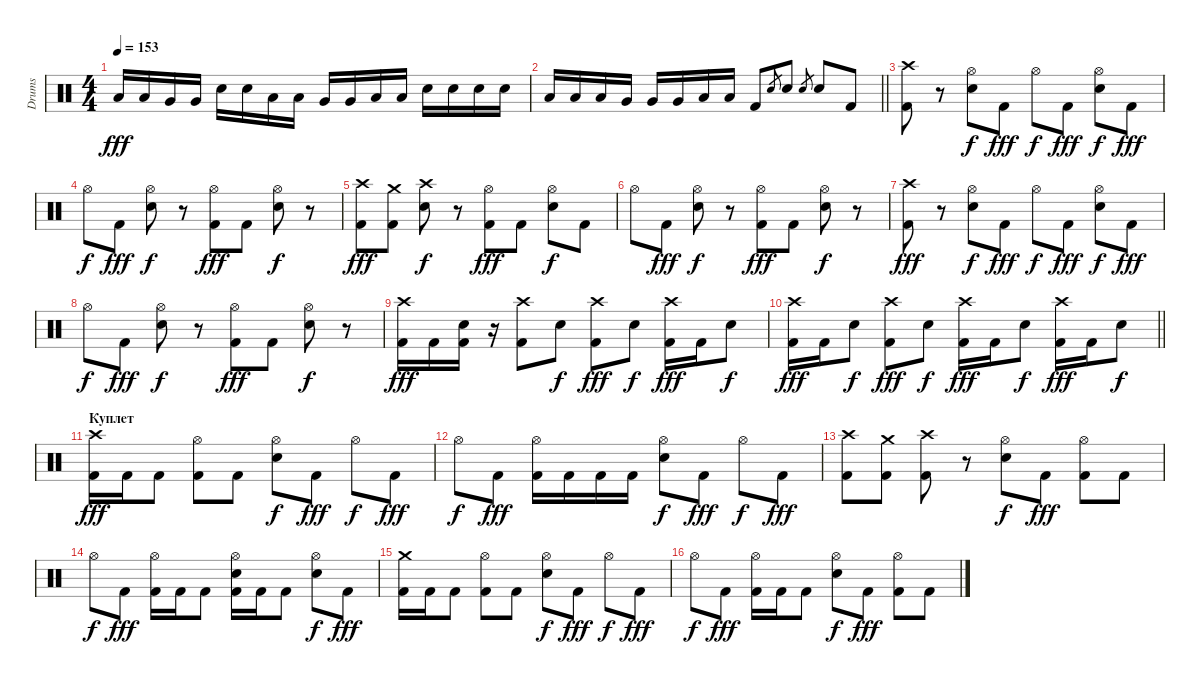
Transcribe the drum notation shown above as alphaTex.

\track ("Drums" "Drums") {instrument percussion}
\staff {score}
\articulation defaults
\ts (4 4)
\tempo 153
\clef neutral
\ks c "Low Tom (hit)".16{dy fff} "Low Tom (hit)".16 "Very Low Tom (hit)".16 "Very Low Tom (hit)".16 "Electric Snare (hit)".16 "Electric Snare (hit)".16 "Low Tom (hit)".16 "Low Tom (hit)".16 "Very Low Tom (hit)".16 "Very Low Tom (hit)".16 "Low Floor Tom (hit)".16 "Low Floor Tom (hit)".16 "Electric Snare (hit)".16 "Electric Snare (hit)".16 "Electric Snare (hit)".16 "Electric Snare (hit)".16
|
\barLineRight lightlight "Low Tom (hit)".16 "Low Tom (hit)".16 "Low Tom (hit)".16 "Very Low Tom (hit)".16 "Very Low Tom (hit)".16 "Very Low Tom (hit)".16 "Low Floor Tom (hit)".16 "Low Floor Tom (hit)".16 "Kick (hit) 2".8 "Electric Snare (hit)".8{gr} "Electric Snare (hit)".8 "Electric Snare (hit)".8{gr} "Electric Snare (hit)".8 "Kick (hit) 2".8
|
\section ("" "")
("Crash high (hit)" "Kick (hit) 2").8 r.8 ("Hi-Hat (open)" "Electric Snare (hit)").8{dy f} "Kick (hit) 2".8{dy fff} "Hi-Hat (open)".8{dy f} "Kick (hit) 2".8{dy fff} ("Hi-Hat (open)" "Electric Snare (hit)").8{dy f} "Kick (hit) 2".8{dy fff} |
"Hi-Hat (open)".8{dy f} "Kick (hit) 2".8{dy fff} ("Hi-Hat (open)" "Electric Snare (hit)").8{dy f} r.8 ("Hi-Hat (open)" "Kick (hit) 2").8{dy fff} "Kick (hit) 2".8 ("Hi-Hat (open)" "Electric Snare (hit)").8{dy f} r.8 |
("Crash high (hit)" "Kick (hit) 2").8{dy fff} ("Crash medium (hit)" "Kick (hit) 2").8 ("Crash high (hit)" "Electric Snare (hit)").8{dy f} r.8 ("Hi-Hat (open)" "Kick (hit) 2").8{dy fff} "Kick (hit) 2".8 ("Hi-Hat (open)" "Electric Snare (hit)").8{dy f} "Kick (hit) 2".8 |
"Hi-Hat (open)".8 "Kick (hit) 2".8{dy fff} ("Hi-Hat (open)" "Electric Snare (hit)").8{dy f} r.8 ("Hi-Hat (open)" "Kick (hit) 2").8{dy fff} "Kick (hit) 2".8 ("Hi-Hat (open)" "Electric Snare (hit)").8{dy f} r.8 |
("Crash high (hit)" "Kick (hit) 2").8{dy fff} r.8 ("Hi-Hat (open)" "Electric Snare (hit)").8{dy f} "Kick (hit) 2".8{dy fff} "Hi-Hat (open)".8{dy f} "Kick (hit) 2".8{dy fff} ("Hi-Hat (open)" "Electric Snare (hit)").8{dy f} "Kick (hit) 2".8{dy fff} |
"Hi-Hat (open)".8{dy f} "Kick (hit) 2".8{dy fff} ("Hi-Hat (open)" "Electric Snare (hit)").8{dy f} r.8 ("Hi-Hat (open)" "Kick (hit) 2").8{dy fff} "Kick (hit) 2".8 ("Hi-Hat (open)" "Electric Snare (hit)").8{dy f} r.8 |
("Crash high (hit)" "Kick (hit) 2").16{dy fff} "Kick (hit) 2".16 ("Electric Snare (hit)" "Kick (hit) 2").16 r.16 ("Crash high (hit)" "Kick (hit) 2").8 "Electric Snare (hit)".8{dy f} ("Crash high (hit)" "Kick (hit) 2").8{dy fff} "Electric Snare (hit)".8{dy f} ("Crash high (hit)" "Kick (hit) 2").16{dy fff} "Kick (hit) 2".16 "Electric Snare (hit)".8{dy f} |
\barLineRight lightlight
("Crash high (hit)" "Kick (hit) 2").16{dy fff} "Kick (hit) 2".16 "Electric Snare (hit)".8{dy f} ("Crash high (hit)" "Kick (hit) 2").8{dy fff} "Electric Snare (hit)".8{dy f} ("Crash high (hit)" "Kick (hit) 2").16{dy fff} "Kick (hit) 2".16 "Electric Snare (hit)".8{dy f} ("Crash high (hit)" "Kick (hit) 2").16{dy fff} "Kick (hit) 2".16 "Electric Snare (hit)".8{dy f} |
\section ("" "Куплет")
("Crash high (hit)" "Kick (hit) 2").16{dy fff} "Kick (hit) 2".16 "Kick (hit) 2".8 ("Hi-Hat (open)" "Kick (hit) 2").8 "Kick (hit) 2".8 ("Hi-Hat (open)" "Electric Snare (hit)").8{dy f} "Kick (hit) 2".8{dy fff} "Hi-Hat (open)".8{dy f} "Kick (hit) 2".8{dy fff} |
"Hi-Hat (open)".8{dy f} "Kick (hit) 2".8{dy fff} ("Hi-Hat (open)" "Kick (hit) 2").16 "Kick (hit) 2".16 "Kick (hit) 2".16 "Kick (hit) 2".16 ("Hi-Hat (open)" "Electric Snare (hit)").8{dy f} "Kick (hit) 2".8{dy fff} "Hi-Hat (open)".8{dy f} "Kick (hit) 2".8{dy fff} |
("Crash high (hit)" "Kick (hit) 2").8 ("Crash medium (hit)" "Kick (hit) 2").8 ("Crash high (hit)" "Kick (hit) 2").8 r.8 ("Hi-Hat (open)" "Electric Snare (hit)").8{dy f} "Kick (hit) 2".8{dy fff} ("Hi-Hat (open)" "Kick (hit) 2").8 "Kick (hit) 2".8 |
"Hi-Hat (open)".8{dy f} "Kick (hit) 2".8{dy fff} ("Hi-Hat (open)" "Kick (hit) 2").16 "Kick (hit) 2".16 "Kick (hit) 2".8 ("Hi-Hat (open)" "Electric Snare (hit)" "Kick (hit) 2").16 "Kick (hit) 2".16 "Kick (hit) 2".8 ("Hi-Hat (open)" "Electric Snare (hit)").8{dy f} "Kick (hit) 2".8{dy fff} |
("Crash medium (hit)" "Kick (hit) 2").16 "Kick (hit) 2".16 "Kick (hit) 2".8 ("Hi-Hat (open)" "Kick (hit) 2").8 "Kick (hit) 2".8 ("Hi-Hat (open)" "Electric Snare (hit)").8{dy f} "Kick (hit) 2".8{dy fff} "Hi-Hat (open)".8{dy f} "Kick (hit) 2".8{dy fff} |
"Hi-Hat (open)".8{dy f} "Kick (hit) 2".8{dy fff} ("Hi-Hat (open)" "Kick (hit) 2").16 "Kick (hit) 2".16 "Kick (hit) 2".8 ("Hi-Hat (open)" "Electric Snare (hit)").8{dy f} "Kick (hit) 2".8{dy fff} ("Hi-Hat (open)" "Kick (hit) 2").8 "Kick (hit) 2".8
